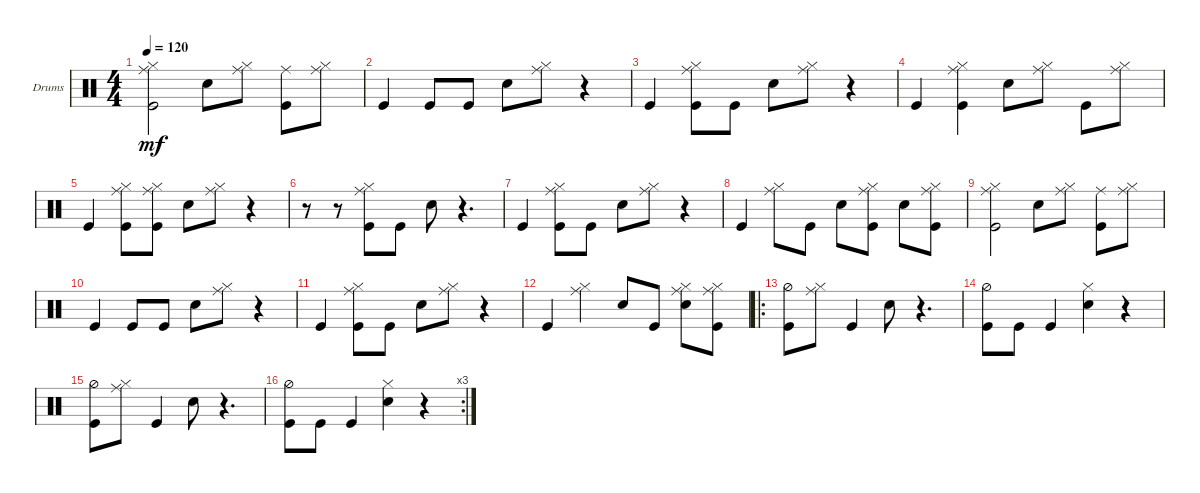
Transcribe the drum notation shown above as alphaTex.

\defaultSystemsLayout 4
\bracketExtendMode groupsimilarinstruments
\firstSystemTrackNameOrientation horizontal
\otherSystemsTrackNameOrientation horizontal
\track ("Drumkit" "Drums") {instrument percussion}
\staff {score}
\articulation defaults
\ts (4 4)
\tempo 120
\clef neutral
\scale
0.333333
\ks c
("Kick (hit)" "Ride (middle)" "Hi-Hat (closed)").2{dy mf} "Snare (hit) 2".8 ("Hi-Hat (closed)" "Ride (middle)").8 ("Kick (hit)" "Ride (middle)").8 ("Hi-Hat (closed)" "Ride (middle)").8 |
\scale
0.333333 "Kick (hit)".4 "Kick (hit)".8 "Kick (hit)".8 "Snare (hit) 2".8 ("Hi-Hat (closed)" "Ride (middle)").8 r.4 |
\scale
0.333333 "Kick (hit)".4 ("Kick (hit)" "Ride (middle)" "Hi-Hat (closed)").8 "Kick (hit)".8 "Snare (hit) 2".8 ("Hi-Hat (closed)" "Ride (middle)").8 r.4 |
\scale
0.333333 "Kick (hit)".4 ("Kick (hit)" "Ride (middle)" "Hi-Hat (closed)").4 "Snare (hit) 2".8 ("Ride (middle)" "Hi-Hat (closed)").8 "Kick (hit)".8 ("Ride (middle)" "Hi-Hat (closed)").8 |
\scale
0.333333 "Kick (hit)".4 ("Kick (hit)" "Ride (middle)" "Hi-Hat (closed)").8 ("Kick (hit)" "Ride (middle)" "Hi-Hat (closed)").8 "Snare (hit) 2".8 ("Hi-Hat (closed)" "Ride (middle)").8 r.4 |
\scale
0.333333 r.8 r.8 ("Ride (middle)" "Hi-Hat (closed)" "Kick (hit)").8 "Kick (hit)".8 "Snare (hit) 2".8 r.4{d} |
\scale
0.333333 "Kick (hit)".4 ("Kick (hit)" "Ride (middle)" "Hi-Hat (closed)").8 "Kick (hit)".8 "Snare (hit) 2".8 ("Ride (middle)" "Hi-Hat (closed)").8 r.4 |
\scale
0.333333 "Kick (hit)".4 ("Ride (middle)" "Hi-Hat (closed)").8 "Kick (hit)".8 "Snare (hit) 2".8 ("Ride (middle)" "Hi-Hat (closed)" "Kick (hit)").8 "Snare (hit) 2".8 ("Ride (middle)" "Hi-Hat (closed)" "Kick (hit)").8 |
\scale
0.333333 ("Kick (hit)" "Ride (middle)" "Hi-Hat (closed)").2 "Snare (hit) 2".8 ("Hi-Hat (closed)" "Ride (middle)").8 ("Kick (hit)" "Ride (middle)").8 ("Hi-Hat (closed)" "Ride (middle)").8 |
\scale
0.333333 "Kick (hit)".4 "Kick (hit)".8 "Kick (hit)".8 "Snare (hit) 2".8 ("Hi-Hat (closed)" "Ride (middle)").8 r.4 |
\scale
0.333333 "Kick (hit)".4 ("Kick (hit)" "Ride (middle)" "Hi-Hat (closed)").8 "Kick (hit)".8 "Snare (hit) 2".8 ("Hi-Hat (closed)" "Ride (middle)").8 r.4 |
\scale
0.333333 "Kick (hit)".4 ("Ride (middle)" "Hi-Hat (closed)").4 "Snare (hit) 2".8 "Kick (hit)".8 ("Hi-Hat (closed)" "Ride (middle)" "Snare (hit) 2").8 ("Ride (middle)" "Hi-Hat (closed)" "Kick (hit)").8 |
\ro
\scale
0.333333 ("Kick (hit)" "Hi-Hat (half)").8 ("Ride (middle)" "Hi-Hat (closed)").8 "Kick (hit)".4 "Snare (hit) 2".8 r.4{d} |
\scale
0.333333 ("Kick (hit)" "Hi-Hat (half)").8 "Kick (hit)".8 "Kick (hit)".4 ("Snare (hit) 2" "Hi-Hat (closed)").4 r.4 |
\scale
0.333333 ("Kick (hit)" "Hi-Hat (half)").8 ("Ride (middle)" "Hi-Hat (closed)").8 "Kick (hit)".4 "Snare (hit) 2".8 r.4{d} |
\rc 3
\scale
0.333333 ("Kick (hit)" "Hi-Hat (half)").8 "Kick (hit)".8 "Kick (hit)".4 ("Snare (hit) 2" "Hi-Hat (closed)").4 r.4
